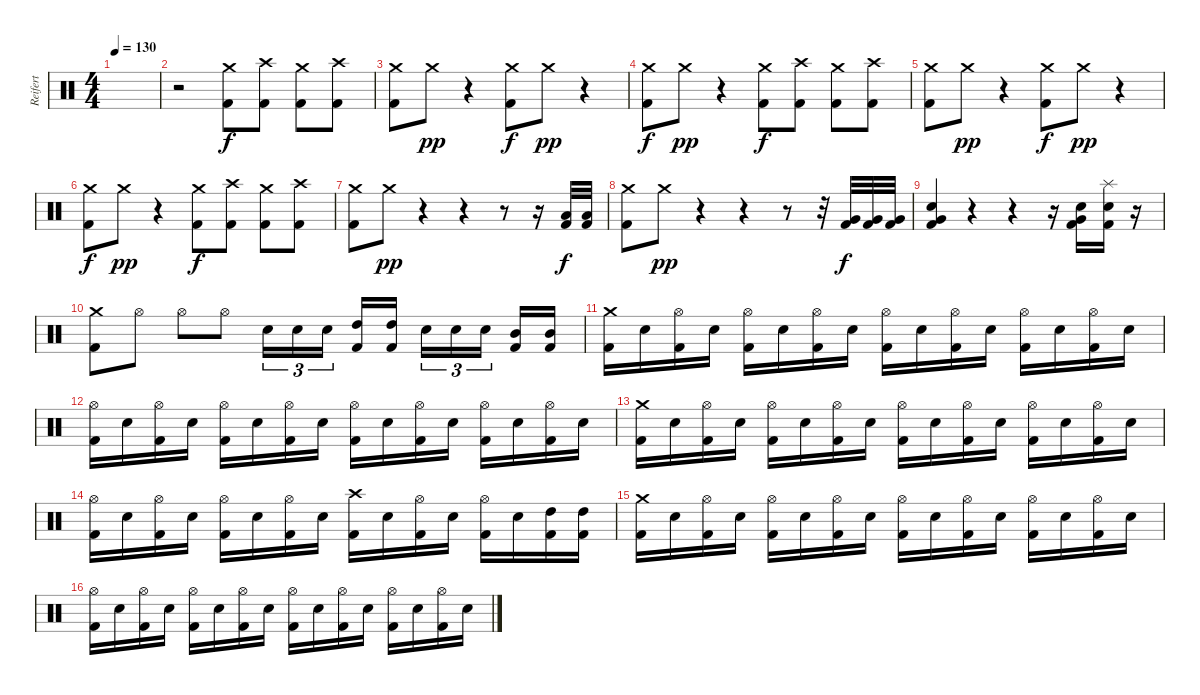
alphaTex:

\track ("Reifert" "Reifert") {instrument percussion}
\staff {score}
\articulation defaults
\ts (4 4)
\tempo 130
\clef neutral
\ks c
|
r.2 ("Crash medium (hit)" "Kick (hit) 2").8 ("Crash high (hit)" "Kick (hit) 2").8 ("Crash medium (hit)" "Kick (hit) 2").8 ("Crash high (hit)" "Kick (hit) 2").8 |
("Crash medium (hit)" "Kick (hit) 2").8 "Crash medium (hit)".8{dy pp} r.4 ("Crash medium (hit)" "Kick (hit) 2").8{dy f} "Crash medium (hit)".8{dy pp} r.4 |
("Crash medium (hit)" "Kick (hit) 2").8{dy f} "Crash medium (hit)".8{dy pp} r.4 ("Crash medium (hit)" "Kick (hit) 2").8{dy f} ("Crash high (hit)" "Kick (hit) 2").8 ("Crash medium (hit)" "Kick (hit) 2").8 ("Crash high (hit)" "Kick (hit) 2").8 |
("Crash medium (hit)" "Kick (hit) 2").8 "Crash medium (hit)".8{dy pp} r.4 ("Crash medium (hit)" "Kick (hit) 2").8{dy f} "Crash medium (hit)".8{dy pp} r.4 |
("Crash medium (hit)" "Kick (hit) 2").8{dy f} "Crash medium (hit)".8{dy pp} r.4 ("Crash medium (hit)" "Kick (hit) 2").8{dy f} ("Crash high (hit)" "Kick (hit) 2").8 ("Crash medium (hit)" "Kick (hit) 2").8 ("Crash high (hit)" "Kick (hit) 2").8 |
("Crash medium (hit)" "Kick (hit) 2").8 "Crash medium (hit)".8{dy pp} r.4 r.4 r.8 r.16 ("Low Floor Tom (hit)" "Kick (hit) 2").32{dy f} ("Low Floor Tom (hit)" "Kick (hit) 2").32 |
("Crash medium (hit)" "Kick (hit) 2").8 "Crash medium (hit)".8{dy pp} r.4 r.4 r.8 r.32 ("Very Low Tom (hit)" "Kick (hit) 2").32{dy f} ("Very Low Tom (hit)" "Kick (hit) 2").32 ("Very Low Tom (hit)" "Kick (hit) 2").32 |
("Very Low Tom (hit)" "Electric Snare (hit)" "Kick (hit) 2").4 r.4 r.4 r.16 ("Very Low Tom (hit)" "Electric Snare (hit)" "Kick (hit) 2").16 ("Splash (hit)" "Electric Snare (hit)" "Kick (hit) 2").16 r.16 |
("Crash medium (hit)" "Kick (hit) 2").8 "Hi-Hat (open)".8 "Hi-Hat (open)".8 "Hi-Hat (open)".8 "Electric Snare (hit)".16{tu (3 2)} "Electric Snare (hit)".16{tu (3 2)} "Electric Snare (hit)".16{tu (3 2)} ("High Tom (hit)" "Kick (hit) 2").16 ("High Tom (hit)" "Kick (hit) 2").16 "Electric Snare (hit)".16{tu (3 2)} "Electric Snare (hit)".16{tu (3 2)} "Electric Snare (hit)".16{tu (3 2)} ("Mid Tom (hit)" "Kick (hit) 2").16 ("Mid Tom (hit)" "Kick (hit) 2").16 |
("Crash medium (hit)" "Kick (hit) 2").16 "Electric Snare (hit)".16 ("Hi-Hat (open)" "Kick (hit) 2").16 "Electric Snare (hit)".16 ("Hi-Hat (open)" "Kick (hit) 2").16 "Electric Snare (hit)".16 ("Hi-Hat (open)" "Kick (hit) 2").16 "Electric Snare (hit)".16 ("Hi-Hat (open)" "Kick (hit) 2").16 "Electric Snare (hit)".16 ("Hi-Hat (open)" "Kick (hit) 2").16 "Electric Snare (hit)".16 ("Hi-Hat (open)" "Kick (hit) 2").16 "Electric Snare (hit)".16 ("Hi-Hat (open)" "Kick (hit) 2").16 "Electric Snare (hit)".16 |
("Hi-Hat (open)" "Kick (hit) 2").16 "Electric Snare (hit)".16 ("Hi-Hat (open)" "Kick (hit) 2").16 "Electric Snare (hit)".16 ("Hi-Hat (open)" "Kick (hit) 2").16 "Electric Snare (hit)".16 ("Hi-Hat (open)" "Kick (hit) 2").16 "Electric Snare (hit)".16 ("Hi-Hat (open)" "Kick (hit) 2").16 "Electric Snare (hit)".16 ("Hi-Hat (open)" "Kick (hit) 2").16 "Electric Snare (hit)".16 ("Hi-Hat (open)" "Kick (hit) 2").16 "Electric Snare (hit)".16 ("Hi-Hat (open)" "Kick (hit) 2").16 "Electric Snare (hit)".16 |
("Crash medium (hit)" "Kick (hit) 2").16 "Electric Snare (hit)".16 ("Hi-Hat (open)" "Kick (hit) 2").16 "Electric Snare (hit)".16 ("Hi-Hat (open)" "Kick (hit) 2").16 "Electric Snare (hit)".16 ("Hi-Hat (open)" "Kick (hit) 2").16 "Electric Snare (hit)".16 ("Hi-Hat (open)" "Kick (hit) 2").16 "Electric Snare (hit)".16 ("Hi-Hat (open)" "Kick (hit) 2").16 "Electric Snare (hit)".16 ("Hi-Hat (open)" "Kick (hit) 2").16 "Electric Snare (hit)".16 ("Hi-Hat (open)" "Kick (hit) 2").16 "Electric Snare (hit)".16 |
("Hi-Hat (open)" "Kick (hit) 2").16 "Electric Snare (hit)".16 ("Hi-Hat (open)" "Kick (hit) 2").16 "Electric Snare (hit)".16 ("Hi-Hat (open)" "Kick (hit) 2").16 "Electric Snare (hit)".16 ("Hi-Hat (open)" "Kick (hit) 2").16 "Electric Snare (hit)".16 ("Crash high (hit)" "Kick (hit) 2").16 "Electric Snare (hit)".16 ("Hi-Hat (open)" "Kick (hit) 2").16 "Electric Snare (hit)".16 ("Hi-Hat (open)" "Kick (hit) 2").16 "Electric Snare (hit)".16 ("High Tom (hit)" "Kick (hit) 2").16 ("High Tom (hit)" "Kick (hit) 2").16 |
("Crash medium (hit)" "Kick (hit) 2").16 "Electric Snare (hit)".16 ("Hi-Hat (open)" "Kick (hit) 2").16 "Electric Snare (hit)".16 ("Hi-Hat (open)" "Kick (hit) 2").16 "Electric Snare (hit)".16 ("Hi-Hat (open)" "Kick (hit) 2").16 "Electric Snare (hit)".16 ("Hi-Hat (open)" "Kick (hit) 2").16 "Electric Snare (hit)".16 ("Hi-Hat (open)" "Kick (hit) 2").16 "Electric Snare (hit)".16 ("Hi-Hat (open)" "Kick (hit) 2").16 "Electric Snare (hit)".16 ("Hi-Hat (open)" "Kick (hit) 2").16 "Electric Snare (hit)".16 |
("Hi-Hat (open)" "Kick (hit) 2").16 "Electric Snare (hit)".16 ("Hi-Hat (open)" "Kick (hit) 2").16 "Electric Snare (hit)".16 ("Hi-Hat (open)" "Kick (hit) 2").16 "Electric Snare (hit)".16 ("Hi-Hat (open)" "Kick (hit) 2").16 "Electric Snare (hit)".16 ("Hi-Hat (open)" "Kick (hit) 2").16 "Electric Snare (hit)".16 ("Hi-Hat (open)" "Kick (hit) 2").16 "Electric Snare (hit)".16 ("Hi-Hat (open)" "Kick (hit) 2").16 "Electric Snare (hit)".16 ("Hi-Hat (open)" "Kick (hit) 2").16 "Electric Snare (hit)".16
